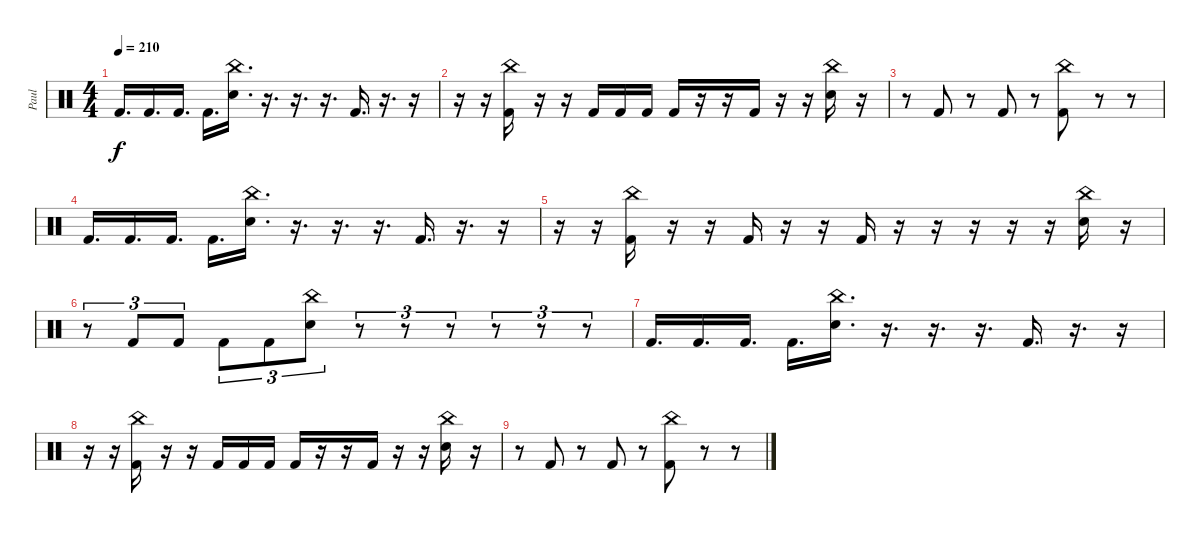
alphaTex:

\track ("Paul " "Paul ") {instrument percussion}
\staff {score}
\articulation defaults
\ts (4 4)
\tempo 210
\clef neutral
\ks c "Kick (hit) 2".16{d dy f} "Kick (hit) 2".16{d} "Kick (hit) 2".16{d} "Kick (hit) 2".16{d}
("Electric Snare (hit)" "China (hit)").16{d} r.16{d} r.16{d} r.16{d} "Kick (hit) 2".16{d} r.16{d} r.16 |
r.16 r.16 ("Kick (hit) 2" "China (hit)").16 r.16 r.16 "Kick (hit) 2".16 "Kick (hit) 2".16 "Kick (hit) 2".16 "Kick (hit) 2".16 r.16 r.16 "Kick (hit) 2".16 r.16 r.16 ("Electric Snare (hit)" "China (hit)").16 r.16 |
r.8 "Kick (hit) 2".8 r.8 "Kick (hit) 2".8 r.8 ("Kick (hit) 2" "China (hit)").8 r.8 r.8 |
"Kick (hit) 2".16{d} "Kick (hit) 2".16{d} "Kick (hit) 2".16{d} "Kick (hit) 2".16{d} ("Electric Snare (hit)" "China (hit)").16{d} r.16{d} r.16{d} r.16{d} "Kick (hit) 2".16{d} r.16{d} r.16 |
r.16 r.16 ("Kick (hit) 2" "China (hit)").16 r.16 r.16 "Kick (hit) 2".16 r.16 r.16 "Kick (hit) 2".16 r.16 r.16 r.16 r.16 r.16 ("Electric Snare (hit)" "China (hit)").16 r.16 |
r.8{tu (3 2)} "Kick (hit) 2".8{tu (3 2)} "Kick (hit) 2".8{tu (3 2)} "Kick (hit) 2".8{tu (3 2)} "Kick (hit) 2".8{tu (3 2)} ("Electric Snare (hit)" "China (hit)").8{tu (3 2)} r.8{tu (3 2)} r.8{tu (3 2)} r.8{tu (3 2)} r.8{tu (3 2)} r.8{tu (3 2)} r.8{tu (3 2)} |
"Kick (hit) 2".16{d} "Kick (hit) 2".16{d} "Kick (hit) 2".16{d} "Kick (hit) 2".16{d} ("Electric Snare (hit)" "China (hit)").16{d} r.16{d} r.16{d} r.16{d} "Kick (hit) 2".16{d} r.16{d} r.16 |
r.16 r.16 ("Kick (hit) 2" "China (hit)").16 r.16 r.16 "Kick (hit) 2".16 "Kick (hit) 2".16 "Kick (hit) 2".16 "Kick (hit) 2".16 r.16 r.16 "Kick (hit) 2".16 r.16 r.16 ("Electric Snare (hit)" "China (hit)").16 r.16 |
r.8 "Kick (hit) 2".8 r.8 "Kick (hit) 2".8 r.8 ("Kick (hit) 2" "China (hit)").8 r.8 r.8
